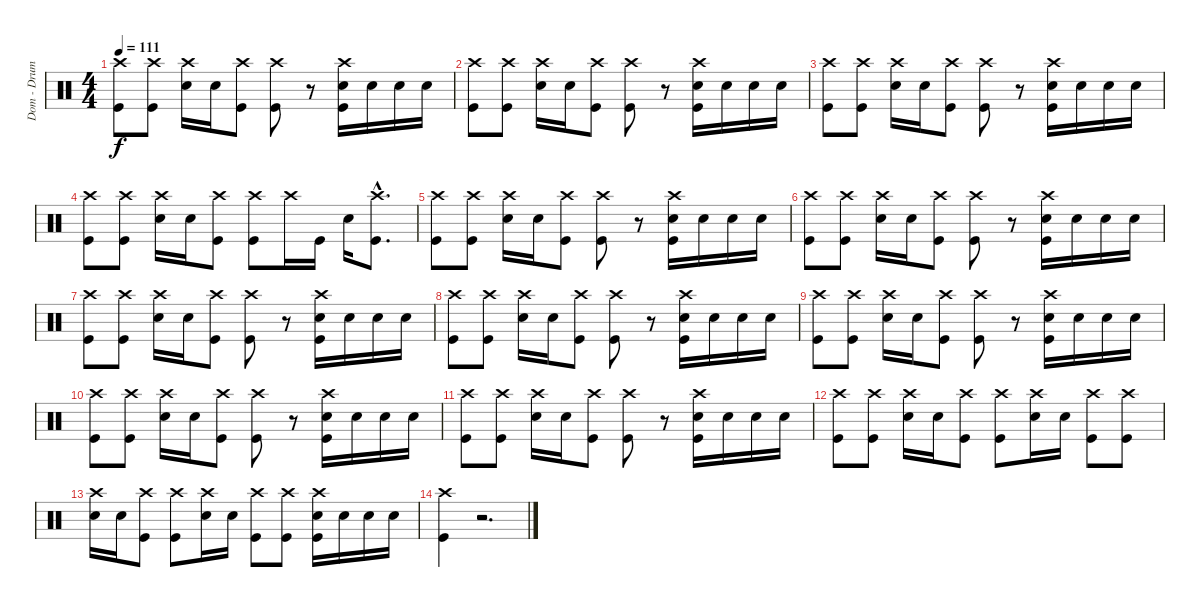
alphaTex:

\track ("Dom - Drums" "Dom - Drum") {instrument percussion}
\staff {score}
\articulation defaults
\ts (4 4)
\tempo 111
\clef neutral
\ks c
("Crash high (hit)" "Kick (hit)").8{dy f} ("Crash high (hit)" "Kick (hit)").8 ("Crash high (hit)" "Electric Snare (hit)").16 "Electric Snare (hit)".16 ("Crash high (hit)" "Kick (hit)").8 ("Crash high (hit)" "Kick (hit)").8 r.8 ("Crash high (hit)" "Electric Snare (hit)" "Kick (hit)").16 "Electric Snare (hit)".16 "Electric Snare (hit)".16 "Electric Snare (hit)".16 |
("Crash high (hit)" "Kick (hit)").8 ("Crash high (hit)" "Kick (hit)").8 ("Crash high (hit)" "Electric Snare (hit)").16 "Electric Snare (hit)".16 ("Crash high (hit)" "Kick (hit)").8 ("Crash high (hit)" "Kick (hit)").8 r.8 ("Crash high (hit)" "Electric Snare (hit)" "Kick (hit)").16 "Electric Snare (hit)".16 "Electric Snare (hit)".16 "Electric Snare (hit)".16 |
("Crash high (hit)" "Kick (hit)").8 ("Crash high (hit)" "Kick (hit)").8 ("Crash high (hit)" "Electric Snare (hit)").16 "Electric Snare (hit)".16 ("Crash high (hit)" "Kick (hit)").8 ("Crash high (hit)" "Kick (hit)").8 r.8 ("Crash high (hit)" "Electric Snare (hit)" "Kick (hit)").16 "Electric Snare (hit)".16 "Electric Snare (hit)".16 "Electric Snare (hit)".16 |
("Crash high (hit)" "Kick (hit)").8 ("Crash high (hit)" "Kick (hit)").8 ("Crash high (hit)" "Electric Snare (hit)").16 "Electric Snare (hit)".16 ("Crash high (hit)" "Kick (hit)").8 ("Crash high (hit)" "Kick (hit)").8 "Crash high (hit)".16 "Kick (hit)".16 "Electric Snare (hit)".16 ("Crash high (hit)"{hac} "Kick (hit)"{hac}).8{d} |
("Crash high (hit)" "Kick (hit)").8 ("Crash high (hit)" "Kick (hit)").8 ("Crash high (hit)" "Electric Snare (hit)").16 "Electric Snare (hit)".16 ("Crash high (hit)" "Kick (hit)").8 ("Crash high (hit)" "Kick (hit)").8 r.8 ("Crash high (hit)" "Electric Snare (hit)" "Kick (hit)").16 "Electric Snare (hit)".16 "Electric Snare (hit)".16 "Electric Snare (hit)".16 |
("Crash high (hit)" "Kick (hit)").8 ("Crash high (hit)" "Kick (hit)").8 ("Crash high (hit)" "Electric Snare (hit)").16 "Electric Snare (hit)".16 ("Crash high (hit)" "Kick (hit)").8 ("Crash high (hit)" "Kick (hit)").8 r.8 ("Crash high (hit)" "Electric Snare (hit)" "Kick (hit)").16 "Electric Snare (hit)".16 "Electric Snare (hit)".16 "Electric Snare (hit)".16 |
("Crash high (hit)" "Kick (hit)").8 ("Crash high (hit)" "Kick (hit)").8 ("Crash high (hit)" "Electric Snare (hit)").16 "Electric Snare (hit)".16 ("Crash high (hit)" "Kick (hit)").8 ("Crash high (hit)" "Kick (hit)").8 r.8 ("Crash high (hit)" "Electric Snare (hit)" "Kick (hit)").16 "Electric Snare (hit)".16 "Electric Snare (hit)".16 "Electric Snare (hit)".16 |
("Crash high (hit)" "Kick (hit)").8 ("Crash high (hit)" "Kick (hit)").8 ("Crash high (hit)" "Electric Snare (hit)").16 "Electric Snare (hit)".16 ("Crash high (hit)" "Kick (hit)").8 ("Crash high (hit)" "Kick (hit)").8 r.8 ("Crash high (hit)" "Electric Snare (hit)" "Kick (hit)").16 "Electric Snare (hit)".16 "Electric Snare (hit)".16 "Electric Snare (hit)".16 |
("Crash high (hit)" "Kick (hit)").8 ("Crash high (hit)" "Kick (hit)").8 ("Crash high (hit)" "Electric Snare (hit)").16 "Electric Snare (hit)".16 ("Crash high (hit)" "Kick (hit)").8 ("Crash high (hit)" "Kick (hit)").8 r.8 ("Crash high (hit)" "Electric Snare (hit)" "Kick (hit)").16 "Electric Snare (hit)".16 "Electric Snare (hit)".16 "Electric Snare (hit)".16 |
("Crash high (hit)" "Kick (hit)").8 ("Crash high (hit)" "Kick (hit)").8 ("Crash high (hit)" "Electric Snare (hit)").16 "Electric Snare (hit)".16 ("Crash high (hit)" "Kick (hit)").8 ("Crash high (hit)" "Kick (hit)").8 r.8 ("Crash high (hit)" "Electric Snare (hit)" "Kick (hit)").16 "Electric Snare (hit)".16 "Electric Snare (hit)".16 "Electric Snare (hit)".16 |
("Crash high (hit)" "Kick (hit)").8 ("Crash high (hit)" "Kick (hit)").8 ("Crash high (hit)" "Electric Snare (hit)").16 "Electric Snare (hit)".16 ("Crash high (hit)" "Kick (hit)").8 ("Crash high (hit)" "Kick (hit)").8 r.8 ("Crash high (hit)" "Electric Snare (hit)" "Kick (hit)").16 "Electric Snare (hit)".16 "Electric Snare (hit)".16 "Electric Snare (hit)".16 |
("Crash high (hit)" "Kick (hit)").8 ("Crash high (hit)" "Kick (hit)").8 ("Crash high (hit)" "Electric Snare (hit)").16 "Electric Snare (hit)".16 ("Crash high (hit)" "Kick (hit)").8 ("Crash high (hit)" "Kick (hit)").8 ("Crash high (hit)" "Electric Snare (hit)").16 "Electric Snare (hit)".16 ("Crash high (hit)" "Kick (hit)").8 ("Crash high (hit)" "Kick (hit)").8 |
("Crash high (hit)" "Electric Snare (hit)").16 "Electric Snare (hit)".16 ("Crash high (hit)" "Kick (hit)").8 ("Crash high (hit)" "Kick (hit)").8 ("Crash high (hit)" "Electric Snare (hit)").16 "Electric Snare (hit)".16 ("Crash high (hit)" "Kick (hit)").8 ("Crash high (hit)" "Kick (hit)").8 ("Crash high (hit)" "Electric Snare (hit)" "Kick (hit)").16 "Electric Snare (hit)".16 "Electric Snare (hit)".16 "Electric Snare (hit)".16 |
("Crash high (hit)" "Kick (hit)").4 r.2{d}
